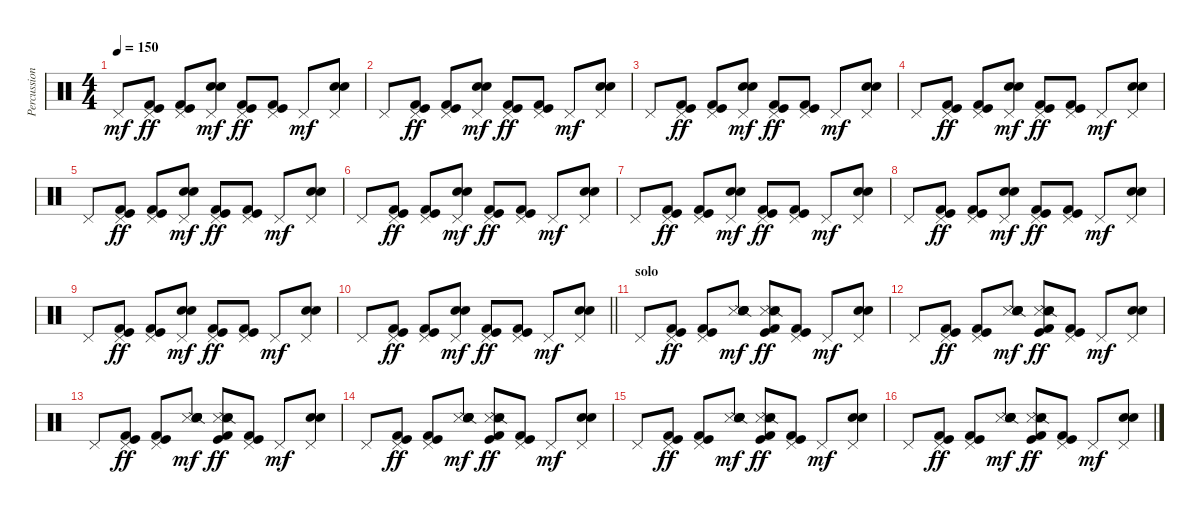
\track ("Percussions" "Percussion") {instrument percussion}
\staff {score}
\articulation defaults
\ts (4 4)
\tempo 150
\clef neutral
\ks c "Pedal Hi-Hat (hit)".8{dy mf}
("Pedal Hi-Hat (hit)" "Kick (hit)" "Kick (hit) 2").8{dy ff} ("Pedal Hi-Hat (hit)" "Kick (hit)" "Kick (hit) 2").8 ("Pedal Hi-Hat (hit)" "Electric Snare (hit)" "Snare (hit) 2").8{dy mf} ("Pedal Hi-Hat (hit)" "Kick (hit)" "Kick (hit) 2").8{dy ff} ("Pedal Hi-Hat (hit)" "Kick (hit)" "Kick (hit) 2").8 "Pedal Hi-Hat (hit)".8{dy mf} ("Pedal Hi-Hat (hit)" "Electric Snare (hit)" "Snare (hit) 2").8 |
"Pedal Hi-Hat (hit)".8 ("Pedal Hi-Hat (hit)" "Kick (hit)" "Kick (hit) 2").8{dy ff} ("Pedal Hi-Hat (hit)" "Kick (hit)" "Kick (hit) 2").8 ("Pedal Hi-Hat (hit)" "Electric Snare (hit)" "Snare (hit) 2").8{dy mf} ("Pedal Hi-Hat (hit)" "Kick (hit)" "Kick (hit) 2").8{dy ff} ("Pedal Hi-Hat (hit)" "Kick (hit)" "Kick (hit) 2").8 "Pedal Hi-Hat (hit)".8{dy mf} ("Pedal Hi-Hat (hit)" "Electric Snare (hit)" "Snare (hit) 2").8 |
"Pedal Hi-Hat (hit)".8 ("Pedal Hi-Hat (hit)" "Kick (hit)" "Kick (hit) 2").8{dy ff} ("Pedal Hi-Hat (hit)" "Kick (hit)" "Kick (hit) 2").8 ("Pedal Hi-Hat (hit)" "Electric Snare (hit)" "Snare (hit) 2").8{dy mf} ("Pedal Hi-Hat (hit)" "Kick (hit)" "Kick (hit) 2").8{dy ff} ("Pedal Hi-Hat (hit)" "Kick (hit)" "Kick (hit) 2").8 "Pedal Hi-Hat (hit)".8{dy mf} ("Pedal Hi-Hat (hit)" "Electric Snare (hit)" "Snare (hit) 2").8 |
"Pedal Hi-Hat (hit)".8 ("Pedal Hi-Hat (hit)" "Kick (hit)" "Kick (hit) 2").8{dy ff} ("Pedal Hi-Hat (hit)" "Kick (hit)" "Kick (hit) 2").8 ("Pedal Hi-Hat (hit)" "Electric Snare (hit)" "Snare (hit) 2").8{dy mf} ("Pedal Hi-Hat (hit)" "Kick (hit)" "Kick (hit) 2").8{dy ff} ("Pedal Hi-Hat (hit)" "Kick (hit)" "Kick (hit) 2").8 "Pedal Hi-Hat (hit)".8{dy mf} ("Pedal Hi-Hat (hit)" "Electric Snare (hit)" "Snare (hit) 2").8 |
"Pedal Hi-Hat (hit)".8 ("Pedal Hi-Hat (hit)" "Kick (hit)" "Kick (hit) 2").8{dy ff} ("Pedal Hi-Hat (hit)" "Kick (hit)" "Kick (hit) 2").8 ("Pedal Hi-Hat (hit)" "Electric Snare (hit)" "Snare (hit) 2").8{dy mf} ("Pedal Hi-Hat (hit)" "Kick (hit)" "Kick (hit) 2").8{dy ff} ("Pedal Hi-Hat (hit)" "Kick (hit)" "Kick (hit) 2").8 "Pedal Hi-Hat (hit)".8{dy mf} ("Pedal Hi-Hat (hit)" "Electric Snare (hit)" "Snare (hit) 2").8 |
"Pedal Hi-Hat (hit)".8 ("Pedal Hi-Hat (hit)" "Kick (hit)" "Kick (hit) 2").8{dy ff} ("Pedal Hi-Hat (hit)" "Kick (hit)" "Kick (hit) 2").8 ("Pedal Hi-Hat (hit)" "Electric Snare (hit)" "Snare (hit) 2").8{dy mf} ("Pedal Hi-Hat (hit)" "Kick (hit)" "Kick (hit) 2").8{dy ff} ("Pedal Hi-Hat (hit)" "Kick (hit)" "Kick (hit) 2").8 "Pedal Hi-Hat (hit)".8{dy mf} ("Pedal Hi-Hat (hit)" "Electric Snare (hit)" "Snare (hit) 2").8 |
"Pedal Hi-Hat (hit)".8 ("Pedal Hi-Hat (hit)" "Kick (hit)" "Kick (hit) 2").8{dy ff} ("Pedal Hi-Hat (hit)" "Kick (hit)" "Kick (hit) 2").8 ("Pedal Hi-Hat (hit)" "Electric Snare (hit)" "Snare (hit) 2").8{dy mf} ("Pedal Hi-Hat (hit)" "Kick (hit)" "Kick (hit) 2").8{dy ff} ("Pedal Hi-Hat (hit)" "Kick (hit)" "Kick (hit) 2").8 "Pedal Hi-Hat (hit)".8{dy mf} ("Pedal Hi-Hat (hit)" "Electric Snare (hit)" "Snare (hit) 2").8 |
"Pedal Hi-Hat (hit)".8 ("Pedal Hi-Hat (hit)" "Kick (hit)" "Kick (hit) 2").8{dy ff} ("Pedal Hi-Hat (hit)" "Kick (hit)" "Kick (hit) 2").8 ("Pedal Hi-Hat (hit)" "Electric Snare (hit)" "Snare (hit) 2").8{dy mf} ("Pedal Hi-Hat (hit)" "Kick (hit)" "Kick (hit) 2").8{dy ff} ("Pedal Hi-Hat (hit)" "Kick (hit)" "Kick (hit) 2").8 "Pedal Hi-Hat (hit)".8{dy mf} ("Pedal Hi-Hat (hit)" "Electric Snare (hit)" "Snare (hit) 2").8 |
"Pedal Hi-Hat (hit)".8 ("Pedal Hi-Hat (hit)" "Kick (hit)" "Kick (hit) 2").8{dy ff} ("Pedal Hi-Hat (hit)" "Kick (hit)" "Kick (hit) 2").8 ("Pedal Hi-Hat (hit)" "Electric Snare (hit)" "Snare (hit) 2").8{dy mf} ("Pedal Hi-Hat (hit)" "Kick (hit)" "Kick (hit) 2").8{dy ff} ("Pedal Hi-Hat (hit)" "Kick (hit)" "Kick (hit) 2").8 "Pedal Hi-Hat (hit)".8{dy mf} ("Pedal Hi-Hat (hit)" "Electric Snare (hit)" "Snare (hit) 2").8 |
\barLineRight lightlight "Pedal Hi-Hat (hit)".8
("Pedal Hi-Hat (hit)" "Kick (hit)" "Kick (hit) 2").8{dy ff} ("Pedal Hi-Hat (hit)" "Kick (hit)" "Kick (hit) 2").8 ("Pedal Hi-Hat (hit)" "Electric Snare (hit)" "Snare (hit) 2").8{dy mf} ("Pedal Hi-Hat (hit)" "Kick (hit)" "Kick (hit) 2").8{dy ff} ("Pedal Hi-Hat (hit)" "Kick (hit)" "Kick (hit) 2").8 "Pedal Hi-Hat (hit)".8{dy mf} ("Pedal Hi-Hat (hit)" "Electric Snare (hit)" "Snare (hit) 2").8 |
\section ("" "solo")
"Pedal Hi-Hat (hit)".8 ("Pedal Hi-Hat (hit)" "Kick (hit)" "Kick (hit) 2").8{dy ff} ("Pedal Hi-Hat (hit)" "Kick (hit)" "Kick (hit) 2").8 ("Metronome (hit)" "Hand Clap (hit)" "Snare (side stick) 2" "Electric Snare (hit)" "Snare (hit) 2").8{dy mf} ("Metronome (hit)" "Hand Clap (hit)" "Snare (side stick) 2" "Kick (hit)" "Kick (hit) 2").8{dy ff} ("Pedal Hi-Hat (hit)" "Kick (hit)" "Kick (hit) 2").8 "Pedal Hi-Hat (hit)".8{dy mf} ("Pedal Hi-Hat (hit)" "Electric Snare (hit)" "Snare (hit) 2").8 |
"Pedal Hi-Hat (hit)".8 ("Pedal Hi-Hat (hit)" "Kick (hit)" "Kick (hit) 2").8{dy ff} ("Pedal Hi-Hat (hit)" "Kick (hit)" "Kick (hit) 2").8 ("Metronome (hit)" "Hand Clap (hit)" "Snare (side stick) 2" "Electric Snare (hit)" "Snare (hit) 2").8{dy mf} ("Metronome (hit)" "Hand Clap (hit)" "Snare (side stick) 2" "Kick (hit)" "Kick (hit) 2").8{dy ff} ("Pedal Hi-Hat (hit)" "Kick (hit)" "Kick (hit) 2").8 "Pedal Hi-Hat (hit)".8{dy mf} ("Pedal Hi-Hat (hit)" "Electric Snare (hit)" "Snare (hit) 2").8 |
"Pedal Hi-Hat (hit)".8 ("Pedal Hi-Hat (hit)" "Kick (hit)" "Kick (hit) 2").8{dy ff} ("Pedal Hi-Hat (hit)" "Kick (hit)" "Kick (hit) 2").8 ("Metronome (hit)" "Hand Clap (hit)" "Snare (side stick) 2" "Electric Snare (hit)" "Snare (hit) 2").8{dy mf} ("Metronome (hit)" "Hand Clap (hit)" "Snare (side stick) 2" "Kick (hit)" "Kick (hit) 2").8{dy ff} ("Pedal Hi-Hat (hit)" "Kick (hit)" "Kick (hit) 2").8 "Pedal Hi-Hat (hit)".8{dy mf} ("Pedal Hi-Hat (hit)" "Electric Snare (hit)" "Snare (hit) 2").8 |
"Pedal Hi-Hat (hit)".8 ("Pedal Hi-Hat (hit)" "Kick (hit)" "Kick (hit) 2").8{dy ff} ("Pedal Hi-Hat (hit)" "Kick (hit)" "Kick (hit) 2").8 ("Metronome (hit)" "Hand Clap (hit)" "Snare (side stick) 2" "Electric Snare (hit)" "Snare (hit) 2").8{dy mf} ("Metronome (hit)" "Hand Clap (hit)" "Snare (side stick) 2" "Kick (hit)" "Kick (hit) 2").8{dy ff} ("Pedal Hi-Hat (hit)" "Kick (hit)" "Kick (hit) 2").8 "Pedal Hi-Hat (hit)".8{dy mf} ("Pedal Hi-Hat (hit)" "Electric Snare (hit)" "Snare (hit) 2").8 |
"Pedal Hi-Hat (hit)".8 ("Pedal Hi-Hat (hit)" "Kick (hit)" "Kick (hit) 2").8{dy ff} ("Pedal Hi-Hat (hit)" "Kick (hit)" "Kick (hit) 2").8 ("Metronome (hit)" "Hand Clap (hit)" "Snare (side stick) 2" "Electric Snare (hit)" "Snare (hit) 2").8{dy mf} ("Metronome (hit)" "Hand Clap (hit)" "Snare (side stick) 2" "Kick (hit)" "Kick (hit) 2").8{dy ff} ("Pedal Hi-Hat (hit)" "Kick (hit)" "Kick (hit) 2").8 "Pedal Hi-Hat (hit)".8{dy mf} ("Pedal Hi-Hat (hit)" "Electric Snare (hit)" "Snare (hit) 2").8 |
"Pedal Hi-Hat (hit)".8 ("Pedal Hi-Hat (hit)" "Kick (hit)" "Kick (hit) 2").8{dy ff} ("Pedal Hi-Hat (hit)" "Kick (hit)" "Kick (hit) 2").8 ("Metronome (hit)" "Hand Clap (hit)" "Snare (side stick) 2" "Electric Snare (hit)" "Snare (hit) 2").8{dy mf} ("Metronome (hit)" "Hand Clap (hit)" "Snare (side stick) 2" "Kick (hit)" "Kick (hit) 2").8{dy ff} ("Pedal Hi-Hat (hit)" "Kick (hit)" "Kick (hit) 2").8 "Pedal Hi-Hat (hit)".8{dy mf} ("Pedal Hi-Hat (hit)" "Electric Snare (hit)" "Snare (hit) 2").8
